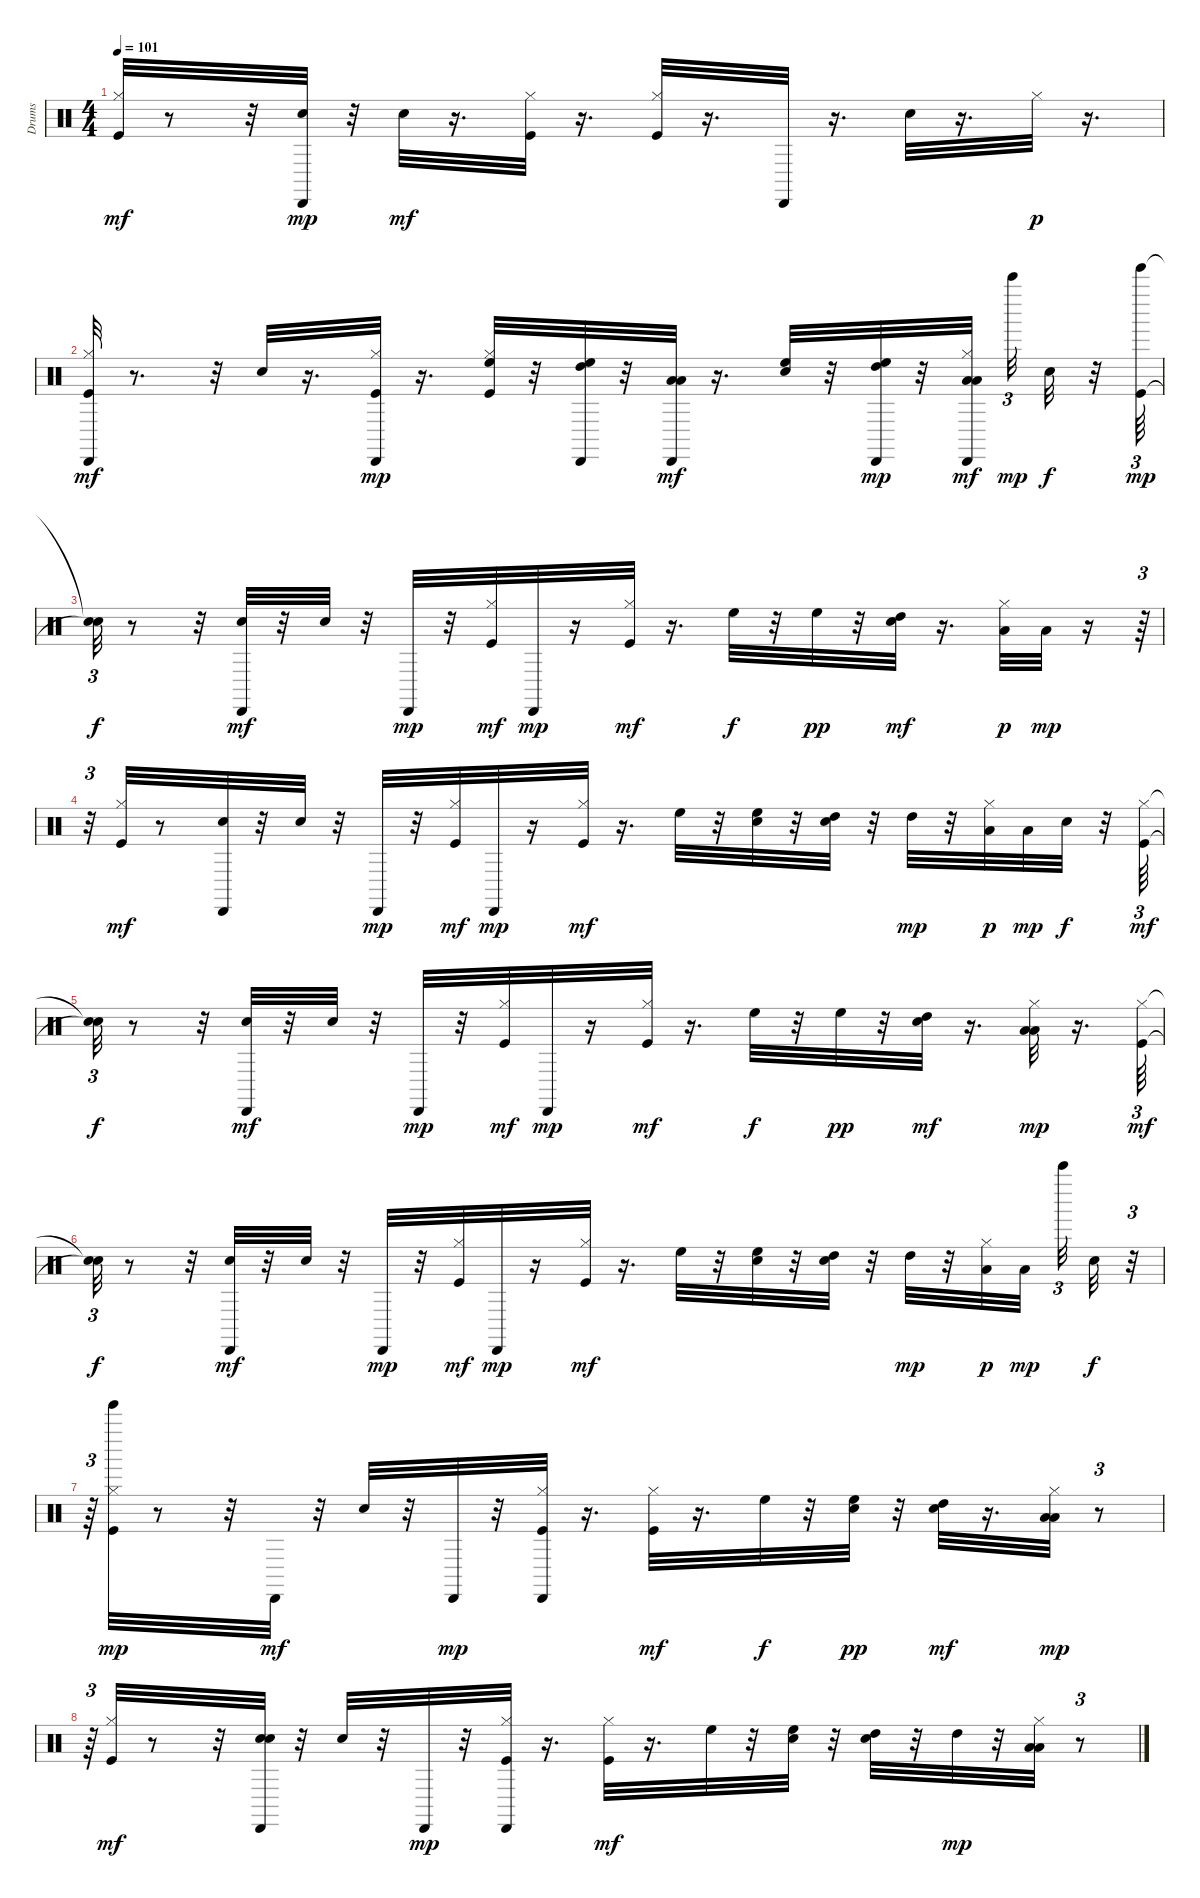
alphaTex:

\track ("Drums" "Drums") {instrument percussion}
\staff {score}
\articulation defaults
\ts (4 4)
\tempo 101
\clef neutral
\ks c
("Kick (hit)" "Hi-Hat (closed)").32{dy mf} r.8 r.32 ("Hand Clap (hit)" "Cabasa (hit)").32{dy mp} r.32 "Snare (hit) 2".32{dy mf} r.16{d} ("Kick (hit)" "Hi-Hat (closed)").32 r.16{d} ("Kick (hit)" "Hi-Hat (closed)").32 r.16{d} "Cabasa (hit)".32 r.16{d} "Snare (hit) 2".32 r.16{d} "Hi-Hat (closed)".32{dy p} r.16{d} |
("Kick (hit)" "Hi-Hat (closed)" "Cabasa (hit)").32{dy mf} r.8{d} r.32 "Snare (hit) 2".32 r.16{d} ("Kick (hit)" "Hi-Hat (closed)" "Cabasa (hit)").32{dy mp} r.16{d} ("Kick (hit)" "Hi-Hat (closed)" "High Floor Tom (hit)").32 r.32 ("High Tom (hit)" "High Floor Tom (hit)" "Cabasa (hit)").32 r.32 ("Low Floor Tom (hit)" "Low Tom (hit)" "Cabasa (hit)").32{dy mf} r.16{d} ("Snare (hit) 2" "High Floor Tom (hit)").32 r.32 ("High Tom (hit)" "High Floor Tom (hit)" "Cabasa (hit)").32{dy mp} r.32 ("Low Floor Tom (hit)" "Hi-Hat (closed)" "Low Tom (hit)" "Cabasa (hit)").32{dy mf beam splitsecondary} "Bell Tree (hit)".32{tu (3 2) dy mp} "Hand Clap (hit)".32{dy f} r.32 ("Kick (hit)" "Tinkle Bell (hit)").64{tu (3 2) dy mp} |
("Snare (hit)"{t} "Snare (hit)"{t}).32{tu (3 2) dy f} r.8 r.32 ("Hand Clap (hit)" "Cabasa (hit)").32{dy mf} r.32 "Snare (hit) 2".32 r.32 "Cabasa (hit)".32{dy mp} r.32 ("Kick (hit)" "Hi-Hat (closed)").32{dy mf} "Cabasa (hit)".32{dy mp} r.16 ("Kick (hit)" "Hi-Hat (closed)").32{dy mf} r.16{d} "High Floor Tom (hit)".32{dy f} r.32 "High Floor Tom (hit)".32{dy pp} r.32 ("Snare (hit) 2" "High Tom (hit)").32{dy mf} r.16{d} ("Low Floor Tom (hit)" "Hi-Hat (closed)").32{dy p} "Low Tom (hit)".32{dy mp} r.16 r.64{tu (3 2)} |
r.32{tu (3 2)} ("Kick (hit)" "Hi-Hat (closed)").32{dy mf} r.8 ("Hand Clap (hit)" "Cabasa (hit)").32 r.32 "Snare (hit) 2".32 r.32 "Cabasa (hit)".32{dy mp} r.32 ("Kick (hit)" "Hi-Hat (closed)").32{dy mf} "Cabasa (hit)".32{dy mp} r.16 ("Kick (hit)" "Hi-Hat (closed)").32{dy mf} r.16{d} "High Floor Tom (hit)".32 r.32 ("Hand Clap (hit)" "High Floor Tom (hit)").32 r.32 ("Snare (hit) 2" "High Tom (hit)").32 r.32 "High Tom (hit)".32{dy mp} r.32 ("Low Floor Tom (hit)" "Hi-Hat (closed)").32{dy p} "Low Tom (hit)".32{dy mp} "Hand Clap (hit)".32{dy f} r.32 ("Kick (hit)" "Hi-Hat (closed)").64{tu (3 2) dy mf} |
("Snare (hit)"{t} "Snare (hit)"{t}).32{tu (3 2) dy f} r.8 r.32 ("Hand Clap (hit)" "Cabasa (hit)").32{dy mf} r.32 "Snare (hit) 2".32 r.32 "Cabasa (hit)".32{dy mp} r.32 ("Kick (hit)" "Hi-Hat (closed)").32{dy mf} "Cabasa (hit)".32{dy mp} r.16 ("Kick (hit)" "Hi-Hat (closed)").32{dy mf} r.16{d} "High Floor Tom (hit)".32{dy f} r.32 "High Floor Tom (hit)".32{dy pp} r.32 ("Snare (hit) 2" "High Tom (hit)").32{dy mf} r.16{d} ("Low Floor Tom (hit)" "Hi-Hat (closed)" "Low Tom (hit)").32{dy mp} r.16{d} ("Kick (hit)" "Hi-Hat (closed)").64{tu (3 2) dy mf} |
("Snare (hit)"{t} "Snare (hit)"{t}).32{tu (3 2) dy f} r.8 r.32 ("Hand Clap (hit)" "Cabasa (hit)").32{dy mf} r.32 "Snare (hit) 2".32 r.32 "Cabasa (hit)".32{dy mp} r.32 ("Kick (hit)" "Hi-Hat (closed)").32{dy mf} "Cabasa (hit)".32{dy mp} r.16 ("Kick (hit)" "Hi-Hat (closed)").32{dy mf} r.16{d} "High Floor Tom (hit)".32 r.32 ("Hand Clap (hit)" "High Floor Tom (hit)").32 r.32 ("Snare (hit) 2" "High Tom (hit)").32 r.32 "High Tom (hit)".32{dy mp} r.32 ("Low Floor Tom (hit)" "Hi-Hat (closed)").32{dy p} "Low Tom (hit)".32{dy mp beam splitsecondary} "Bell Tree (hit)".32{tu (3 2)} "Hand Clap (hit)".32{dy f} r.32{tu (3 2)} |
r.64{tu (3 2)} ("Kick (hit)" "Hi-Hat (closed)" "Tinkle Bell (hit)").32{dy mp} r.8 r.32 "Cabasa (hit)".32{dy mf} r.32 "Snare (hit) 2".32 r.32 "Cabasa (hit)".32{dy mp} r.32 ("Kick (hit)" "Hi-Hat (closed)" "Cabasa (hit)").32 r.16{d} ("Kick (hit)" "Hi-Hat (closed)").32{dy mf} r.16{d} "High Floor Tom (hit)".32{dy f} r.32 ("Hand Clap (hit)" "High Floor Tom (hit)").32{dy pp} r.32 ("Snare (hit) 2" "High Tom (hit)").32{dy mf} r.16{d} ("Low Floor Tom (hit)" "Hi-Hat (closed)" "Low Tom (hit)").32{dy mp} r.8{tu (3 2)} |
r.64{tu (3 2)} ("Kick (hit)" "Hi-Hat (closed)").32{dy mf} r.8 r.32 ("Hand Clap (hit)" "Hand Clap (hit)" "Cabasa (hit)").32 r.32 "Snare (hit) 2".32 r.32 "Cabasa (hit)".32{dy mp} r.32 ("Kick (hit)" "Hi-Hat (closed)" "Cabasa (hit)").32 r.16{d} ("Kick (hit)" "Hi-Hat (closed)").32{dy mf} r.16{d} "High Floor Tom (hit)".32 r.32 ("Hand Clap (hit)" "High Floor Tom (hit)").32 r.32 ("Snare (hit) 2" "High Tom (hit)").32 r.32 "High Tom (hit)".32{dy mp} r.32 ("Low Floor Tom (hit)" "Hi-Hat (closed)" "Low Tom (hit)").32 r.8{tu (3 2)}
